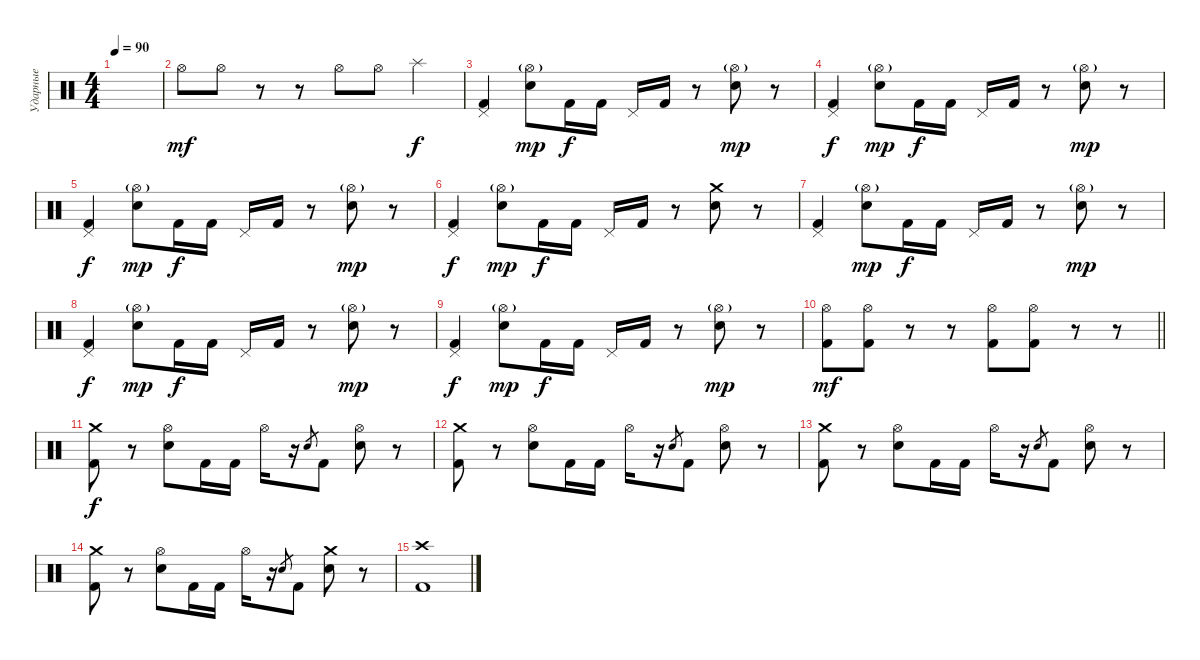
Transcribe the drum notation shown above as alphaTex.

\track ("Ударные" "Ударные") {instrument percussion}
\staff {score}
\articulation defaults
\ts (4 4)
\tempo 90
\clef neutral
\ks c
|
"Hi-Hat (open)".8{dy mf} "Hi-Hat (open)".8 r.8 r.8 "Hi-Hat (open)".8 "Hi-Hat (open)".8 "Splash (hit)".4{dy f} |
("Pedal Hi-Hat (hit)" "Kick (hit) 2").4 ("Hi-Hat (open)"{g} "Electric Snare (hit)").8{dy mp} "Kick (hit) 2".16{dy f} "Kick (hit) 2".16 "Pedal Hi-Hat (hit)".16 "Kick (hit) 2".16 r.8 ("Hi-Hat (open)"{g} "Electric Snare (hit)").8{dy mp} r.8 |
("Pedal Hi-Hat (hit)" "Kick (hit) 2").4{dy f} ("Hi-Hat (open)"{g} "Electric Snare (hit)").8{dy mp} "Kick (hit) 2".16{dy f} "Kick (hit) 2".16 "Pedal Hi-Hat (hit)".16 "Kick (hit) 2".16 r.8 ("Hi-Hat (open)"{g} "Electric Snare (hit)").8{dy mp} r.8 |
("Pedal Hi-Hat (hit)" "Kick (hit) 2").4{dy f} ("Hi-Hat (open)"{g} "Electric Snare (hit)").8{dy mp} "Kick (hit) 2".16{dy f} "Kick (hit) 2".16 "Pedal Hi-Hat (hit)".16 "Kick (hit) 2".16 r.8 ("Hi-Hat (open)"{g} "Electric Snare (hit)").8{dy mp} r.8 |
("Pedal Hi-Hat (hit)" "Kick (hit) 2").4{dy f} ("Hi-Hat (open)"{g} "Electric Snare (hit)").8{dy mp} "Kick (hit) 2".16{dy f} "Kick (hit) 2".16 "Pedal Hi-Hat (hit)".16 "Kick (hit) 2".16 r.8 ("Crash medium (hit)" "Electric Snare (hit)").8 r.8 |
("Pedal Hi-Hat (hit)" "Kick (hit) 2").4 ("Hi-Hat (open)"{g} "Electric Snare (hit)").8{dy mp} "Kick (hit) 2".16{dy f} "Kick (hit) 2".16 "Pedal Hi-Hat (hit)".16 "Kick (hit) 2".16 r.8 ("Hi-Hat (open)"{g} "Electric Snare (hit)").8{dy mp} r.8 |
("Pedal Hi-Hat (hit)" "Kick (hit) 2").4{dy f} ("Hi-Hat (open)"{g} "Electric Snare (hit)").8{dy mp} "Kick (hit) 2".16{dy f} "Kick (hit) 2".16 "Pedal Hi-Hat (hit)".16 "Kick (hit) 2".16 r.8 ("Hi-Hat (open)"{g} "Electric Snare (hit)").8{dy mp} r.8 |
("Pedal Hi-Hat (hit)" "Kick (hit) 2").4{dy f} ("Hi-Hat (open)"{g} "Electric Snare (hit)").8{dy mp} "Kick (hit) 2".16{dy f} "Kick (hit) 2".16 "Pedal Hi-Hat (hit)".16 "Kick (hit) 2".16 r.8 ("Hi-Hat (open)"{g} "Electric Snare (hit)").8{dy mp} r.8 |
\barLineRight lightlight
("Hi-Hat (open)" "Kick (hit) 2").8{dy mf} ("Hi-Hat (open)" "Kick (hit) 2").8 r.8 r.8 ("Hi-Hat (open)" "Kick (hit) 2").8 ("Hi-Hat (open)" "Kick (hit) 2").8 r.8 r.8 |
("Crash medium (hit)" "Kick (hit) 2").8{dy f} r.8 ("Hi-Hat (open)" "Electric Snare (hit)").8 "Kick (hit) 2".16 "Kick (hit) 2".16 "Hi-Hat (open)".16 r.16 "Electric Snare (hit)".8{gr} "Kick (hit) 2".8 ("Hi-Hat (open)" "Electric Snare (hit)").8 r.8 |
("Crash medium (hit)" "Kick (hit) 2").8 r.8 ("Hi-Hat (open)" "Electric Snare (hit)").8 "Kick (hit) 2".16 "Kick (hit) 2".16 "Hi-Hat (open)".16 r.16 "Electric Snare (hit)".8{gr} "Kick (hit) 2".8 ("Hi-Hat (open)" "Electric Snare (hit)").8 r.8 |
("Crash medium (hit)" "Kick (hit) 2").8 r.8 ("Hi-Hat (open)" "Electric Snare (hit)").8 "Kick (hit) 2".16 "Kick (hit) 2".16 "Hi-Hat (open)".16 r.16 "Electric Snare (hit)".8{gr} "Kick (hit) 2".8 ("Hi-Hat (open)" "Electric Snare (hit)").8 r.8 |
("Crash medium (hit)" "Kick (hit) 2").8 r.8 ("Hi-Hat (open)" "Electric Snare (hit)").8 "Kick (hit) 2".16 "Kick (hit) 2".16 "Hi-Hat (open)".16 r.16 "Electric Snare (hit)".8{gr} "Kick (hit) 2".8 ("Crash medium (hit)" "Electric Snare (hit)").8 r.8 |
("Crash high (hit)" "Kick (hit) 2").1
